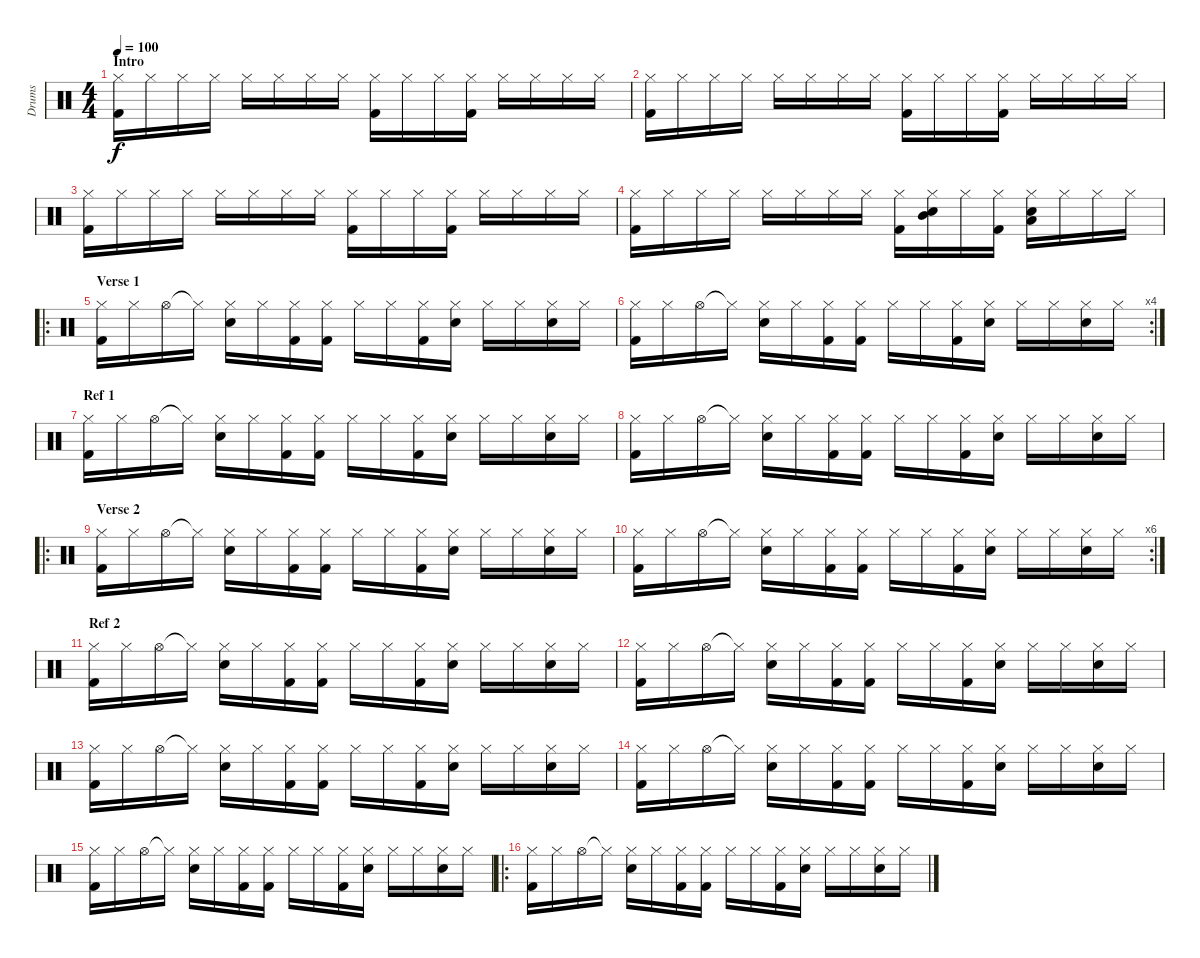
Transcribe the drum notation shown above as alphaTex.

\track ("Drums" "Drums") {instrument percussion}
\staff {score}
\articulation defaults
\ts (4 4)
\section ("" "Intro")
\tempo 100
\clef neutral
\ks c
("Hi-Hat (closed)" "Kick (hit) 2").16{dy f} "Hi-Hat (closed)".16 "Hi-Hat (closed)".16 "Hi-Hat (closed)".16 "Hi-Hat (closed)".16 "Hi-Hat (closed)".16 "Hi-Hat (closed)".16 "Hi-Hat (closed)".16 ("Hi-Hat (closed)" "Kick (hit) 2").16 "Hi-Hat (closed)".16 "Hi-Hat (closed)".16 ("Hi-Hat (closed)" "Kick (hit) 2").16 "Hi-Hat (closed)".16 "Hi-Hat (closed)".16 "Hi-Hat (closed)".16 "Hi-Hat (closed)".16 |
("Hi-Hat (closed)" "Kick (hit) 2").16 "Hi-Hat (closed)".16 "Hi-Hat (closed)".16 "Hi-Hat (closed)".16 "Hi-Hat (closed)".16 "Hi-Hat (closed)".16 "Hi-Hat (closed)".16 "Hi-Hat (closed)".16 ("Hi-Hat (closed)" "Kick (hit) 2").16 "Hi-Hat (closed)".16 "Hi-Hat (closed)".16 ("Hi-Hat (closed)" "Kick (hit) 2").16 "Hi-Hat (closed)".16 "Hi-Hat (closed)".16 "Hi-Hat (closed)".16 "Hi-Hat (closed)".16 |
("Hi-Hat (closed)" "Kick (hit) 2").16 "Hi-Hat (closed)".16 "Hi-Hat (closed)".16 "Hi-Hat (closed)".16 "Hi-Hat (closed)".16 "Hi-Hat (closed)".16 "Hi-Hat (closed)".16 "Hi-Hat (closed)".16 ("Hi-Hat (closed)" "Kick (hit) 2").16 "Hi-Hat (closed)".16 "Hi-Hat (closed)".16 ("Hi-Hat (closed)" "Kick (hit) 2").16 "Hi-Hat (closed)".16 "Hi-Hat (closed)".16 "Hi-Hat (closed)".16 "Hi-Hat (closed)".16 |
("Hi-Hat (closed)" "Kick (hit) 2").16 "Hi-Hat (closed)".16 "Hi-Hat (closed)".16 "Hi-Hat (closed)".16 "Hi-Hat (closed)".16 "Hi-Hat (closed)".16 "Hi-Hat (closed)".16 "Hi-Hat (closed)".16 ("Hi-Hat (closed)" "Kick (hit) 2").16 ("Hi-Hat (closed)" "Snare (hit) 2" "Mid Tom (hit)").16 "Hi-Hat (closed)".16 ("Hi-Hat (closed)" "Kick (hit) 2").16 ("Hi-Hat (closed)" "Snare (hit) 2" "Low Tom (hit)").16 "Hi-Hat (closed)".16 "Hi-Hat (closed)".16 "Hi-Hat (closed)".16 |
\ro
\section ("" "Verse 1")
("Hi-Hat (closed)" "Kick (hit) 2").16 "Hi-Hat (closed)".16 "Hi-Hat (open)".16 "Hi-Hat (closed)"{t}.16 ("Hi-Hat (closed)" "Electric Snare (hit)").16 "Hi-Hat (closed)".16 ("Hi-Hat (closed)" "Kick (hit) 2").16 ("Hi-Hat (closed)" "Kick (hit) 2").16 "Hi-Hat (closed)".16 "Hi-Hat (closed)".16 ("Hi-Hat (closed)" "Kick (hit) 2").16 ("Hi-Hat (closed)" "Electric Snare (hit)").16 "Hi-Hat (closed)".16 "Hi-Hat (closed)".16 ("Hi-Hat (closed)" "Electric Snare (hit)").16 "Hi-Hat (closed)".16 |
\rc 4
("Hi-Hat (closed)" "Kick (hit) 2").16 "Hi-Hat (closed)".16 "Hi-Hat (open)".16 "Hi-Hat (closed)"{t}.16 ("Hi-Hat (closed)" "Electric Snare (hit)").16 "Hi-Hat (closed)".16 ("Hi-Hat (closed)" "Kick (hit) 2").16 ("Hi-Hat (closed)" "Kick (hit) 2").16 "Hi-Hat (closed)".16 "Hi-Hat (closed)".16 ("Hi-Hat (closed)" "Kick (hit) 2").16 ("Hi-Hat (closed)" "Electric Snare (hit)").16 "Hi-Hat (closed)".16 "Hi-Hat (closed)".16 ("Hi-Hat (closed)" "Electric Snare (hit)").16 "Hi-Hat (closed)".16 |
\section ("" "Ref 1")
("Hi-Hat (closed)" "Kick (hit) 2").16 "Hi-Hat (closed)".16 "Hi-Hat (open)".16 "Hi-Hat (closed)"{t}.16 ("Hi-Hat (closed)" "Electric Snare (hit)").16 "Hi-Hat (closed)".16 ("Hi-Hat (closed)" "Kick (hit) 2").16 ("Hi-Hat (closed)" "Kick (hit) 2").16 "Hi-Hat (closed)".16 "Hi-Hat (closed)".16 ("Hi-Hat (closed)" "Kick (hit) 2").16 ("Hi-Hat (closed)" "Electric Snare (hit)").16 "Hi-Hat (closed)".16 "Hi-Hat (closed)".16 ("Hi-Hat (closed)" "Electric Snare (hit)").16 "Hi-Hat (closed)".16 |
("Hi-Hat (closed)" "Kick (hit) 2").16 "Hi-Hat (closed)".16 "Hi-Hat (open)".16 "Hi-Hat (closed)"{t}.16 ("Hi-Hat (closed)" "Electric Snare (hit)").16 "Hi-Hat (closed)".16 ("Hi-Hat (closed)" "Kick (hit) 2").16 ("Hi-Hat (closed)" "Kick (hit) 2").16 "Hi-Hat (closed)".16 "Hi-Hat (closed)".16 ("Hi-Hat (closed)" "Kick (hit) 2").16 ("Hi-Hat (closed)" "Electric Snare (hit)").16 "Hi-Hat (closed)".16 "Hi-Hat (closed)".16 ("Hi-Hat (closed)" "Electric Snare (hit)").16 "Hi-Hat (closed)".16 |
\ro
\section ("" "Verse 2")
("Hi-Hat (closed)" "Kick (hit) 2").16 "Hi-Hat (closed)".16 "Hi-Hat (open)".16 "Hi-Hat (closed)"{t}.16 ("Hi-Hat (closed)" "Electric Snare (hit)").16 "Hi-Hat (closed)".16 ("Hi-Hat (closed)" "Kick (hit) 2").16 ("Hi-Hat (closed)" "Kick (hit) 2").16 "Hi-Hat (closed)".16 "Hi-Hat (closed)".16 ("Hi-Hat (closed)" "Kick (hit) 2").16 ("Hi-Hat (closed)" "Electric Snare (hit)").16 "Hi-Hat (closed)".16 "Hi-Hat (closed)".16 ("Hi-Hat (closed)" "Electric Snare (hit)").16 "Hi-Hat (closed)".16 |
\rc 6
("Hi-Hat (closed)" "Kick (hit) 2").16 "Hi-Hat (closed)".16 "Hi-Hat (open)".16 "Hi-Hat (closed)"{t}.16 ("Hi-Hat (closed)" "Electric Snare (hit)").16 "Hi-Hat (closed)".16 ("Hi-Hat (closed)" "Kick (hit) 2").16 ("Hi-Hat (closed)" "Kick (hit) 2").16 "Hi-Hat (closed)".16 "Hi-Hat (closed)".16 ("Hi-Hat (closed)" "Kick (hit) 2").16 ("Hi-Hat (closed)" "Electric Snare (hit)").16 "Hi-Hat (closed)".16 "Hi-Hat (closed)".16 ("Hi-Hat (closed)" "Electric Snare (hit)").16 "Hi-Hat (closed)".16 |
\section ("" "Ref 2")
("Hi-Hat (closed)" "Kick (hit) 2").16 "Hi-Hat (closed)".16 "Hi-Hat (open)".16 "Hi-Hat (closed)"{t}.16 ("Hi-Hat (closed)" "Electric Snare (hit)").16 "Hi-Hat (closed)".16 ("Hi-Hat (closed)" "Kick (hit) 2").16 ("Hi-Hat (closed)" "Kick (hit) 2").16 "Hi-Hat (closed)".16 "Hi-Hat (closed)".16 ("Hi-Hat (closed)" "Kick (hit) 2").16 ("Hi-Hat (closed)" "Electric Snare (hit)").16 "Hi-Hat (closed)".16 "Hi-Hat (closed)".16 ("Hi-Hat (closed)" "Electric Snare (hit)").16 "Hi-Hat (closed)".16 |
("Hi-Hat (closed)" "Kick (hit) 2").16 "Hi-Hat (closed)".16 "Hi-Hat (open)".16 "Hi-Hat (closed)"{t}.16 ("Hi-Hat (closed)" "Electric Snare (hit)").16 "Hi-Hat (closed)".16 ("Hi-Hat (closed)" "Kick (hit) 2").16 ("Hi-Hat (closed)" "Kick (hit) 2").16 "Hi-Hat (closed)".16 "Hi-Hat (closed)".16 ("Hi-Hat (closed)" "Kick (hit) 2").16 ("Hi-Hat (closed)" "Electric Snare (hit)").16 "Hi-Hat (closed)".16 "Hi-Hat (closed)".16 ("Hi-Hat (closed)" "Electric Snare (hit)").16 "Hi-Hat (closed)".16 |
("Hi-Hat (closed)" "Kick (hit) 2").16 "Hi-Hat (closed)".16 "Hi-Hat (open)".16 "Hi-Hat (closed)"{t}.16 ("Hi-Hat (closed)" "Electric Snare (hit)").16 "Hi-Hat (closed)".16 ("Hi-Hat (closed)" "Kick (hit) 2").16 ("Hi-Hat (closed)" "Kick (hit) 2").16 "Hi-Hat (closed)".16 "Hi-Hat (closed)".16 ("Hi-Hat (closed)" "Kick (hit) 2").16 ("Hi-Hat (closed)" "Electric Snare (hit)").16 "Hi-Hat (closed)".16 "Hi-Hat (closed)".16 ("Hi-Hat (closed)" "Electric Snare (hit)").16 "Hi-Hat (closed)".16 |
("Hi-Hat (closed)" "Kick (hit) 2").16 "Hi-Hat (closed)".16 "Hi-Hat (open)".16 "Hi-Hat (closed)"{t}.16 ("Hi-Hat (closed)" "Electric Snare (hit)").16 "Hi-Hat (closed)".16 ("Hi-Hat (closed)" "Kick (hit) 2").16 ("Hi-Hat (closed)" "Kick (hit) 2").16 "Hi-Hat (closed)".16 "Hi-Hat (closed)".16 ("Hi-Hat (closed)" "Kick (hit) 2").16 ("Hi-Hat (closed)" "Electric Snare (hit)").16 "Hi-Hat (closed)".16 "Hi-Hat (closed)".16 ("Hi-Hat (closed)" "Electric Snare (hit)").16 "Hi-Hat (closed)".16 |
("Hi-Hat (closed)" "Kick (hit) 2").16 "Hi-Hat (closed)".16 "Hi-Hat (open)".16 "Hi-Hat (closed)"{t}.16 ("Hi-Hat (closed)" "Electric Snare (hit)").16 "Hi-Hat (closed)".16 ("Hi-Hat (closed)" "Kick (hit) 2").16 ("Hi-Hat (closed)" "Kick (hit) 2").16 "Hi-Hat (closed)".16 "Hi-Hat (closed)".16 ("Hi-Hat (closed)" "Kick (hit) 2").16 ("Hi-Hat (closed)" "Electric Snare (hit)").16 "Hi-Hat (closed)".16 "Hi-Hat (closed)".16 ("Hi-Hat (closed)" "Electric Snare (hit)").16 "Hi-Hat (closed)".16 |
\ro
("Hi-Hat (closed)" "Kick (hit) 2").16 "Hi-Hat (closed)".16 "Hi-Hat (open)".16 "Hi-Hat (closed)"{t}.16 ("Hi-Hat (closed)" "Electric Snare (hit)").16 "Hi-Hat (closed)".16 ("Hi-Hat (closed)" "Kick (hit) 2").16 ("Hi-Hat (closed)" "Kick (hit) 2").16 "Hi-Hat (closed)".16 "Hi-Hat (closed)".16 ("Hi-Hat (closed)" "Kick (hit) 2").16 ("Hi-Hat (closed)" "Electric Snare (hit)").16 "Hi-Hat (closed)".16 "Hi-Hat (closed)".16 ("Hi-Hat (closed)" "Electric Snare (hit)").16 "Hi-Hat (closed)".16
